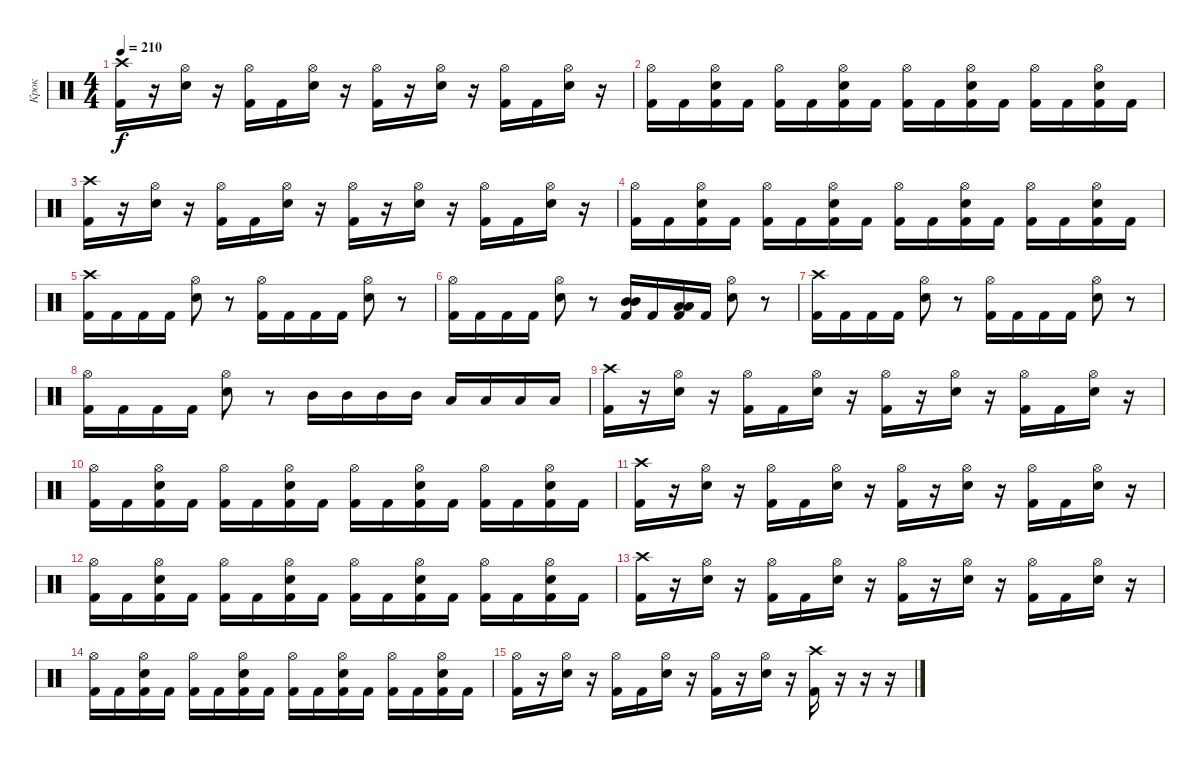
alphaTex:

\track ("Крок" "Крок") {instrument percussion}
\staff {score}
\articulation defaults
\ts (4 4)
\tempo 210
\clef neutral
\ks c
("Crash high (hit)" "Kick (hit) 2").16{dy f} r.16 ("Hi-Hat (open)" "Electric Snare (hit)").16 r.16 ("Hi-Hat (open)" "Kick (hit) 2").16 "Kick (hit) 2".16 ("Hi-Hat (open)" "Electric Snare (hit)").16 r.16 ("Hi-Hat (open)" "Kick (hit) 2").16 r.16 ("Hi-Hat (open)" "Electric Snare (hit)").16 r.16 ("Hi-Hat (open)" "Kick (hit) 2").16 "Kick (hit) 2".16 ("Hi-Hat (open)" "Electric Snare (hit)").16 r.16 |
("Hi-Hat (open)" "Kick (hit) 2").16 "Kick (hit) 2".16 ("Hi-Hat (open)" "Electric Snare (hit)" "Kick (hit) 2").16 "Kick (hit) 2".16 ("Hi-Hat (open)" "Kick (hit) 2").16 "Kick (hit) 2".16 ("Hi-Hat (open)" "Electric Snare (hit)" "Kick (hit) 2").16 "Kick (hit) 2".16 ("Hi-Hat (open)" "Kick (hit) 2").16 "Kick (hit) 2".16 ("Hi-Hat (open)" "Electric Snare (hit)" "Kick (hit) 2").16 "Kick (hit) 2".16 ("Hi-Hat (open)" "Kick (hit) 2").16 "Kick (hit) 2".16 ("Hi-Hat (open)" "Electric Snare (hit)" "Kick (hit) 2").16 "Kick (hit) 2".16 |
("Crash high (hit)" "Kick (hit) 2").16 r.16 ("Hi-Hat (open)" "Electric Snare (hit)").16 r.16 ("Hi-Hat (open)" "Kick (hit) 2").16 "Kick (hit) 2".16 ("Hi-Hat (open)" "Electric Snare (hit)").16 r.16 ("Hi-Hat (open)" "Kick (hit) 2").16 r.16 ("Hi-Hat (open)" "Electric Snare (hit)").16 r.16 ("Hi-Hat (open)" "Kick (hit) 2").16 "Kick (hit) 2".16 ("Hi-Hat (open)" "Electric Snare (hit)").16 r.16 |
("Hi-Hat (open)" "Kick (hit) 2").16 "Kick (hit) 2".16 ("Hi-Hat (open)" "Electric Snare (hit)" "Kick (hit) 2").16 "Kick (hit) 2".16 ("Hi-Hat (open)" "Kick (hit) 2").16 "Kick (hit) 2".16 ("Hi-Hat (open)" "Electric Snare (hit)" "Kick (hit) 2").16 "Kick (hit) 2".16 ("Hi-Hat (open)" "Kick (hit) 2").16 "Kick (hit) 2".16 ("Hi-Hat (open)" "Electric Snare (hit)" "Kick (hit) 2").16 "Kick (hit) 2".16 ("Hi-Hat (open)" "Kick (hit) 2").16 "Kick (hit) 2".16 ("Hi-Hat (open)" "Electric Snare (hit)" "Kick (hit) 2").16 "Kick (hit) 2".16 |
("Crash high (hit)" "Kick (hit) 2").16 "Kick (hit) 2".16 "Kick (hit) 2".16 "Kick (hit) 2".16 ("Hi-Hat (open)" "Electric Snare (hit)").8 r.8 ("Hi-Hat (open)" "Kick (hit) 2").16 "Kick (hit) 2".16 "Kick (hit) 2".16 "Kick (hit) 2".16 ("Hi-Hat (open)" "Electric Snare (hit)").8 r.8 |
("Hi-Hat (open)" "Kick (hit) 2").16 "Kick (hit) 2".16 "Kick (hit) 2".16 "Kick (hit) 2".16 ("Hi-Hat (open)" "Electric Snare (hit)").8 r.8 ("Mid Tom (hit)" "Mid Tom (hit)" "Kick (hit) 2").16 "Kick (hit) 2".16 ("Low Tom (hit)" "Low Tom (hit)" "Kick (hit) 2").16 "Kick (hit) 2".16 ("Hi-Hat (open)" "Electric Snare (hit)").8 r.8 |
("Crash high (hit)" "Kick (hit) 2").16 "Kick (hit) 2".16 "Kick (hit) 2".16 "Kick (hit) 2".16 ("Hi-Hat (open)" "Electric Snare (hit)").8 r.8 ("Hi-Hat (open)" "Kick (hit) 2").16 "Kick (hit) 2".16 "Kick (hit) 2".16 "Kick (hit) 2".16 ("Hi-Hat (open)" "Electric Snare (hit)").8 r.8 |
("Hi-Hat (open)" "Kick (hit) 2").16 "Kick (hit) 2".16 "Kick (hit) 2".16 "Kick (hit) 2".16 ("Hi-Hat (open)" "Electric Snare (hit)").8 r.8 "Mid Tom (hit)".16 "Mid Tom (hit)".16 "Mid Tom (hit)".16 "Mid Tom (hit)".16 "Low Tom (hit)".16 "Low Tom (hit)".16 "Low Tom (hit)".16 "Low Tom (hit)".16 |
("Crash high (hit)" "Kick (hit) 2").16 r.16 ("Hi-Hat (open)" "Electric Snare (hit)").16 r.16 ("Hi-Hat (open)" "Kick (hit) 2").16 "Kick (hit) 2".16 ("Hi-Hat (open)" "Electric Snare (hit)").16 r.16 ("Hi-Hat (open)" "Kick (hit) 2").16 r.16 ("Hi-Hat (open)" "Electric Snare (hit)").16 r.16 ("Hi-Hat (open)" "Kick (hit) 2").16 "Kick (hit) 2".16 ("Hi-Hat (open)" "Electric Snare (hit)").16 r.16 |
("Hi-Hat (open)" "Kick (hit) 2").16 "Kick (hit) 2".16 ("Hi-Hat (open)" "Electric Snare (hit)" "Kick (hit) 2").16 "Kick (hit) 2".16 ("Hi-Hat (open)" "Kick (hit) 2").16 "Kick (hit) 2".16 ("Hi-Hat (open)" "Electric Snare (hit)" "Kick (hit) 2").16 "Kick (hit) 2".16 ("Hi-Hat (open)" "Kick (hit) 2").16 "Kick (hit) 2".16 ("Hi-Hat (open)" "Electric Snare (hit)" "Kick (hit) 2").16 "Kick (hit) 2".16 ("Hi-Hat (open)" "Kick (hit) 2").16 "Kick (hit) 2".16 ("Hi-Hat (open)" "Electric Snare (hit)" "Kick (hit) 2").16 "Kick (hit) 2".16 |
("Crash high (hit)" "Kick (hit) 2").16 r.16 ("Hi-Hat (open)" "Electric Snare (hit)").16 r.16 ("Hi-Hat (open)" "Kick (hit) 2").16 "Kick (hit) 2".16 ("Hi-Hat (open)" "Electric Snare (hit)").16 r.16 ("Hi-Hat (open)" "Kick (hit) 2").16 r.16 ("Hi-Hat (open)" "Electric Snare (hit)").16 r.16 ("Hi-Hat (open)" "Kick (hit) 2").16 "Kick (hit) 2".16 ("Hi-Hat (open)" "Electric Snare (hit)").16 r.16 |
("Hi-Hat (open)" "Kick (hit) 2").16 "Kick (hit) 2".16 ("Hi-Hat (open)" "Electric Snare (hit)" "Kick (hit) 2").16 "Kick (hit) 2".16 ("Hi-Hat (open)" "Kick (hit) 2").16 "Kick (hit) 2".16 ("Hi-Hat (open)" "Electric Snare (hit)" "Kick (hit) 2").16 "Kick (hit) 2".16 ("Hi-Hat (open)" "Kick (hit) 2").16 "Kick (hit) 2".16 ("Hi-Hat (open)" "Electric Snare (hit)" "Kick (hit) 2").16 "Kick (hit) 2".16 ("Hi-Hat (open)" "Kick (hit) 2").16 "Kick (hit) 2".16 ("Hi-Hat (open)" "Electric Snare (hit)" "Kick (hit) 2").16 "Kick (hit) 2".16 |
("Crash high (hit)" "Kick (hit) 2").16 r.16 ("Hi-Hat (open)" "Electric Snare (hit)").16 r.16 ("Hi-Hat (open)" "Kick (hit) 2").16 "Kick (hit) 2".16 ("Hi-Hat (open)" "Electric Snare (hit)").16 r.16 ("Hi-Hat (open)" "Kick (hit) 2").16 r.16 ("Hi-Hat (open)" "Electric Snare (hit)").16 r.16 ("Hi-Hat (open)" "Kick (hit) 2").16 "Kick (hit) 2".16 ("Hi-Hat (open)" "Electric Snare (hit)").16 r.16 |
("Hi-Hat (open)" "Kick (hit) 2").16 "Kick (hit) 2".16 ("Hi-Hat (open)" "Electric Snare (hit)" "Kick (hit) 2").16 "Kick (hit) 2".16 ("Hi-Hat (open)" "Kick (hit) 2").16 "Kick (hit) 2".16 ("Hi-Hat (open)" "Electric Snare (hit)" "Kick (hit) 2").16 "Kick (hit) 2".16 ("Hi-Hat (open)" "Kick (hit) 2").16 "Kick (hit) 2".16 ("Hi-Hat (open)" "Electric Snare (hit)" "Kick (hit) 2").16 "Kick (hit) 2".16 ("Hi-Hat (open)" "Kick (hit) 2").16 "Kick (hit) 2".16 ("Hi-Hat (open)" "Electric Snare (hit)" "Kick (hit) 2").16 "Kick (hit) 2".16 |
("Hi-Hat (open)" "Kick (hit) 2").16 r.16 ("Hi-Hat (open)" "Electric Snare (hit)").16 r.16 ("Hi-Hat (open)" "Kick (hit) 2").16 "Kick (hit) 2".16 ("Hi-Hat (open)" "Electric Snare (hit)").16 r.16 ("Hi-Hat (open)" "Kick (hit) 2").16 r.16 ("Hi-Hat (open)" "Electric Snare (hit)").16 r.16 ("Crash high (hit)" "Kick (hit) 2").16 r.16 r.16 r.16
